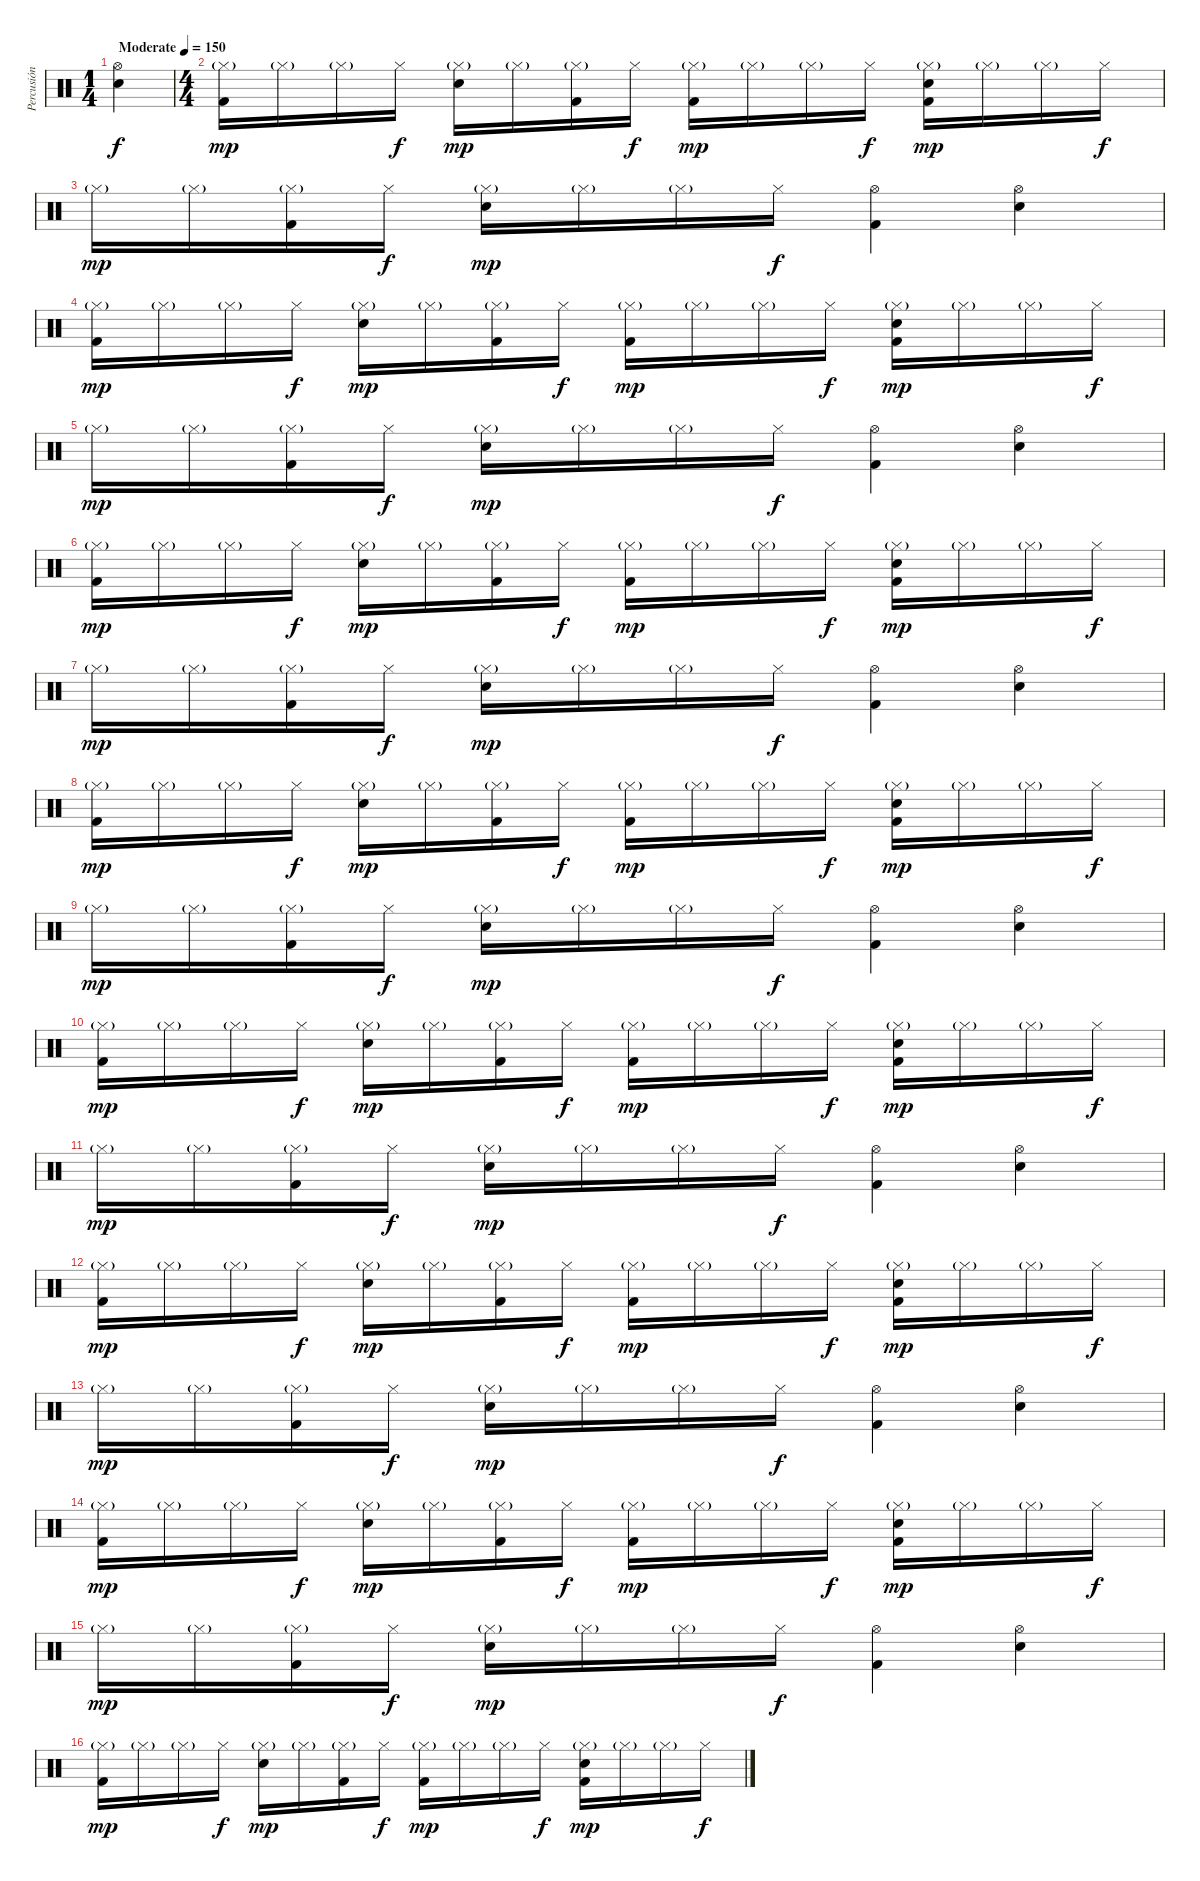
\track ("Percusión" "Percusión") {instrument percussion}
\staff {score}
\articulation defaults
\ts (1 4)
\tempo (150 "Moderate")
\clef neutral
\ks c
("Electric Snare (hit)" "Hi-Hat (open)").4{dy f} |
\ts (4 4)
("Hi-Hat (closed)"{g} "Kick (hit) 2").16{dy mp} "Hi-Hat (closed)"{g}.16 "Hi-Hat (closed)"{g}.16 "Hi-Hat (closed)".16{dy f} ("Hi-Hat (closed)"{g} "Electric Snare (hit)").16{dy mp} "Hi-Hat (closed)"{g}.16 ("Hi-Hat (closed)"{g} "Kick (hit) 2").16 "Hi-Hat (closed)".16{dy f} ("Hi-Hat (closed)"{g} "Kick (hit) 2").16{dy mp} "Hi-Hat (closed)"{g}.16 "Hi-Hat (closed)"{g}.16 "Hi-Hat (closed)".16{dy f} ("Hi-Hat (closed)"{g} "Kick (hit) 2" "Electric Snare (hit)").16{dy mp} "Hi-Hat (closed)"{g}.16 "Hi-Hat (closed)"{g}.16 "Hi-Hat (closed)".16{dy f} |
"Hi-Hat (closed)"{g}.16{dy mp} "Hi-Hat (closed)"{g}.16 ("Hi-Hat (closed)"{g} "Kick (hit) 2").16 "Hi-Hat (closed)".16{dy f} ("Hi-Hat (closed)"{g} "Electric Snare (hit)").16{dy mp} "Hi-Hat (closed)"{g}.16 "Hi-Hat (closed)"{g}.16 "Hi-Hat (closed)".16{dy f} ("Hi-Hat (open)" "Kick (hit) 2").4 ("Hi-Hat (open)" "Electric Snare (hit)").4 |
("Hi-Hat (closed)"{g} "Kick (hit) 2").16{dy mp} "Hi-Hat (closed)"{g}.16 "Hi-Hat (closed)"{g}.16 "Hi-Hat (closed)".16{dy f} ("Hi-Hat (closed)"{g} "Electric Snare (hit)").16{dy mp} "Hi-Hat (closed)"{g}.16 ("Hi-Hat (closed)"{g} "Kick (hit) 2").16 "Hi-Hat (closed)".16{dy f} ("Hi-Hat (closed)"{g} "Kick (hit) 2").16{dy mp} "Hi-Hat (closed)"{g}.16 "Hi-Hat (closed)"{g}.16 "Hi-Hat (closed)".16{dy f} ("Hi-Hat (closed)"{g} "Kick (hit) 2" "Electric Snare (hit)").16{dy mp} "Hi-Hat (closed)"{g}.16 "Hi-Hat (closed)"{g}.16 "Hi-Hat (closed)".16{dy f} |
"Hi-Hat (closed)"{g}.16{dy mp} "Hi-Hat (closed)"{g}.16 ("Hi-Hat (closed)"{g} "Kick (hit) 2").16 "Hi-Hat (closed)".16{dy f} ("Hi-Hat (closed)"{g} "Electric Snare (hit)").16{dy mp} "Hi-Hat (closed)"{g}.16 "Hi-Hat (closed)"{g}.16 "Hi-Hat (closed)".16{dy f} ("Hi-Hat (open)" "Kick (hit) 2").4 ("Hi-Hat (open)" "Electric Snare (hit)").4 |
("Hi-Hat (closed)"{g} "Kick (hit) 2").16{dy mp} "Hi-Hat (closed)"{g}.16 "Hi-Hat (closed)"{g}.16 "Hi-Hat (closed)".16{dy f} ("Hi-Hat (closed)"{g} "Electric Snare (hit)").16{dy mp} "Hi-Hat (closed)"{g}.16 ("Hi-Hat (closed)"{g} "Kick (hit) 2").16 "Hi-Hat (closed)".16{dy f} ("Hi-Hat (closed)"{g} "Kick (hit) 2").16{dy mp} "Hi-Hat (closed)"{g}.16 "Hi-Hat (closed)"{g}.16 "Hi-Hat (closed)".16{dy f} ("Hi-Hat (closed)"{g} "Kick (hit) 2" "Electric Snare (hit)").16{dy mp} "Hi-Hat (closed)"{g}.16 "Hi-Hat (closed)"{g}.16 "Hi-Hat (closed)".16{dy f} |
"Hi-Hat (closed)"{g}.16{dy mp} "Hi-Hat (closed)"{g}.16 ("Hi-Hat (closed)"{g} "Kick (hit) 2").16 "Hi-Hat (closed)".16{dy f} ("Hi-Hat (closed)"{g} "Electric Snare (hit)").16{dy mp} "Hi-Hat (closed)"{g}.16 "Hi-Hat (closed)"{g}.16 "Hi-Hat (closed)".16{dy f} ("Hi-Hat (open)" "Kick (hit) 2").4 ("Hi-Hat (open)" "Electric Snare (hit)").4 |
("Hi-Hat (closed)"{g} "Kick (hit) 2").16{dy mp} "Hi-Hat (closed)"{g}.16 "Hi-Hat (closed)"{g}.16 "Hi-Hat (closed)".16{dy f} ("Hi-Hat (closed)"{g} "Electric Snare (hit)").16{dy mp} "Hi-Hat (closed)"{g}.16 ("Hi-Hat (closed)"{g} "Kick (hit) 2").16 "Hi-Hat (closed)".16{dy f} ("Hi-Hat (closed)"{g} "Kick (hit) 2").16{dy mp} "Hi-Hat (closed)"{g}.16 "Hi-Hat (closed)"{g}.16 "Hi-Hat (closed)".16{dy f} ("Hi-Hat (closed)"{g} "Kick (hit) 2" "Electric Snare (hit)").16{dy mp} "Hi-Hat (closed)"{g}.16 "Hi-Hat (closed)"{g}.16 "Hi-Hat (closed)".16{dy f} |
"Hi-Hat (closed)"{g}.16{dy mp} "Hi-Hat (closed)"{g}.16 ("Hi-Hat (closed)"{g} "Kick (hit) 2").16 "Hi-Hat (closed)".16{dy f} ("Hi-Hat (closed)"{g} "Electric Snare (hit)").16{dy mp} "Hi-Hat (closed)"{g}.16 "Hi-Hat (closed)"{g}.16 "Hi-Hat (closed)".16{dy f} ("Hi-Hat (open)" "Kick (hit) 2").4 ("Hi-Hat (open)" "Electric Snare (hit)").4 |
("Hi-Hat (closed)"{g} "Kick (hit) 2").16{dy mp} "Hi-Hat (closed)"{g}.16 "Hi-Hat (closed)"{g}.16 "Hi-Hat (closed)".16{dy f} ("Hi-Hat (closed)"{g} "Electric Snare (hit)").16{dy mp} "Hi-Hat (closed)"{g}.16 ("Hi-Hat (closed)"{g} "Kick (hit) 2").16 "Hi-Hat (closed)".16{dy f} ("Hi-Hat (closed)"{g} "Kick (hit) 2").16{dy mp} "Hi-Hat (closed)"{g}.16 "Hi-Hat (closed)"{g}.16 "Hi-Hat (closed)".16{dy f} ("Hi-Hat (closed)"{g} "Kick (hit) 2" "Electric Snare (hit)").16{dy mp} "Hi-Hat (closed)"{g}.16 "Hi-Hat (closed)"{g}.16 "Hi-Hat (closed)".16{dy f} |
"Hi-Hat (closed)"{g}.16{dy mp} "Hi-Hat (closed)"{g}.16 ("Hi-Hat (closed)"{g} "Kick (hit) 2").16 "Hi-Hat (closed)".16{dy f} ("Hi-Hat (closed)"{g} "Electric Snare (hit)").16{dy mp} "Hi-Hat (closed)"{g}.16 "Hi-Hat (closed)"{g}.16 "Hi-Hat (closed)".16{dy f} ("Hi-Hat (open)" "Kick (hit) 2").4 ("Hi-Hat (open)" "Electric Snare (hit)").4 |
("Hi-Hat (closed)"{g} "Kick (hit) 2").16{dy mp} "Hi-Hat (closed)"{g}.16 "Hi-Hat (closed)"{g}.16 "Hi-Hat (closed)".16{dy f} ("Hi-Hat (closed)"{g} "Electric Snare (hit)").16{dy mp} "Hi-Hat (closed)"{g}.16 ("Hi-Hat (closed)"{g} "Kick (hit) 2").16 "Hi-Hat (closed)".16{dy f} ("Hi-Hat (closed)"{g} "Kick (hit) 2").16{dy mp} "Hi-Hat (closed)"{g}.16 "Hi-Hat (closed)"{g}.16 "Hi-Hat (closed)".16{dy f} ("Hi-Hat (closed)"{g} "Kick (hit) 2" "Electric Snare (hit)").16{dy mp} "Hi-Hat (closed)"{g}.16 "Hi-Hat (closed)"{g}.16 "Hi-Hat (closed)".16{dy f} |
"Hi-Hat (closed)"{g}.16{dy mp} "Hi-Hat (closed)"{g}.16 ("Hi-Hat (closed)"{g} "Kick (hit) 2").16 "Hi-Hat (closed)".16{dy f} ("Hi-Hat (closed)"{g} "Electric Snare (hit)").16{dy mp} "Hi-Hat (closed)"{g}.16 "Hi-Hat (closed)"{g}.16 "Hi-Hat (closed)".16{dy f} ("Hi-Hat (open)" "Kick (hit) 2").4 ("Hi-Hat (open)" "Electric Snare (hit)").4 |
("Hi-Hat (closed)"{g} "Kick (hit) 2").16{dy mp} "Hi-Hat (closed)"{g}.16 "Hi-Hat (closed)"{g}.16 "Hi-Hat (closed)".16{dy f} ("Hi-Hat (closed)"{g} "Electric Snare (hit)").16{dy mp} "Hi-Hat (closed)"{g}.16 ("Hi-Hat (closed)"{g} "Kick (hit) 2").16 "Hi-Hat (closed)".16{dy f} ("Hi-Hat (closed)"{g} "Kick (hit) 2").16{dy mp} "Hi-Hat (closed)"{g}.16 "Hi-Hat (closed)"{g}.16 "Hi-Hat (closed)".16{dy f} ("Hi-Hat (closed)"{g} "Kick (hit) 2" "Electric Snare (hit)").16{dy mp} "Hi-Hat (closed)"{g}.16 "Hi-Hat (closed)"{g}.16 "Hi-Hat (closed)".16{dy f} |
"Hi-Hat (closed)"{g}.16{dy mp} "Hi-Hat (closed)"{g}.16 ("Hi-Hat (closed)"{g} "Kick (hit) 2").16 "Hi-Hat (closed)".16{dy f} ("Hi-Hat (closed)"{g} "Electric Snare (hit)").16{dy mp} "Hi-Hat (closed)"{g}.16 "Hi-Hat (closed)"{g}.16 "Hi-Hat (closed)".16{dy f} ("Hi-Hat (open)" "Kick (hit) 2").4 ("Hi-Hat (open)" "Electric Snare (hit)").4 |
("Hi-Hat (closed)"{g} "Kick (hit) 2").16{dy mp} "Hi-Hat (closed)"{g}.16 "Hi-Hat (closed)"{g}.16 "Hi-Hat (closed)".16{dy f} ("Hi-Hat (closed)"{g} "Electric Snare (hit)").16{dy mp} "Hi-Hat (closed)"{g}.16 ("Hi-Hat (closed)"{g} "Kick (hit) 2").16 "Hi-Hat (closed)".16{dy f} ("Hi-Hat (closed)"{g} "Kick (hit) 2").16{dy mp} "Hi-Hat (closed)"{g}.16 "Hi-Hat (closed)"{g}.16 "Hi-Hat (closed)".16{dy f} ("Hi-Hat (closed)"{g} "Kick (hit) 2" "Electric Snare (hit)").16{dy mp} "Hi-Hat (closed)"{g}.16 "Hi-Hat (closed)"{g}.16 "Hi-Hat (closed)".16{dy f}
